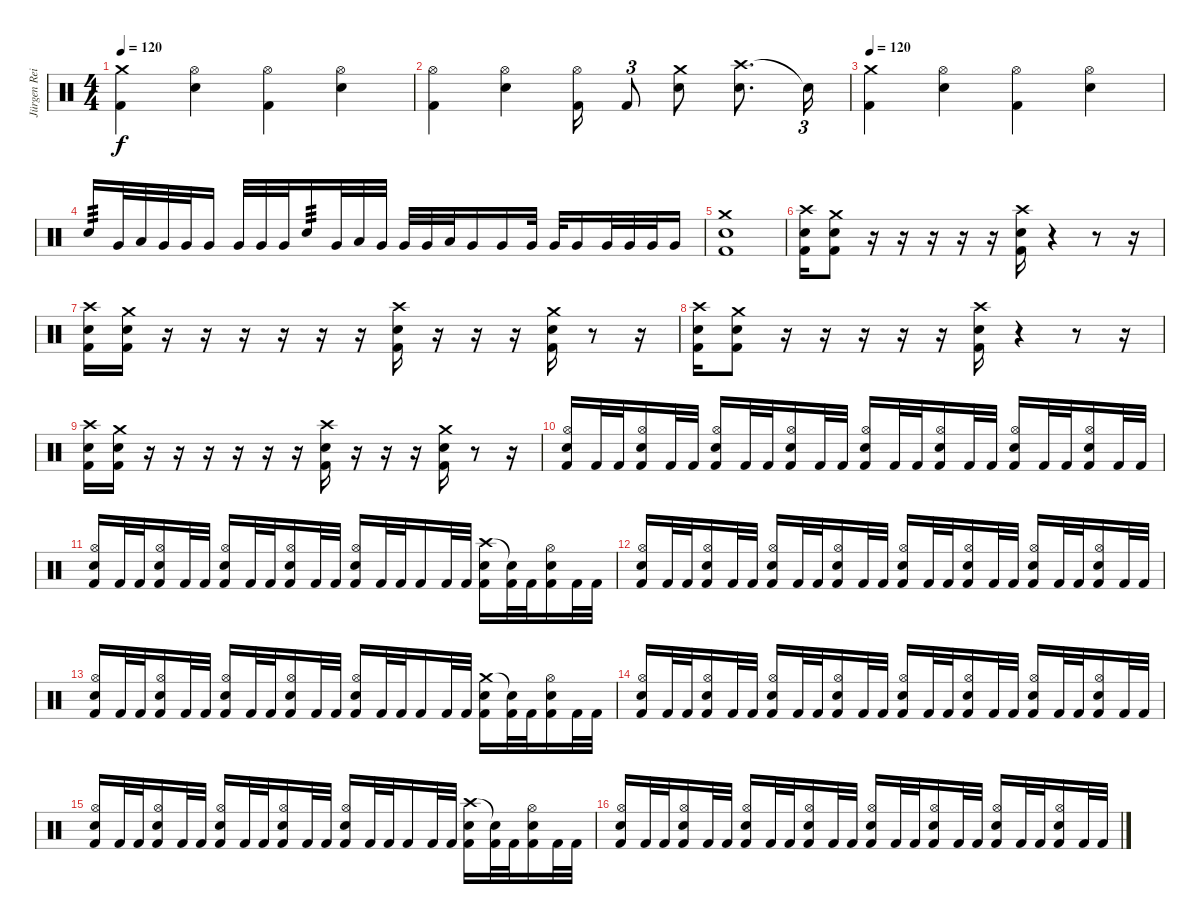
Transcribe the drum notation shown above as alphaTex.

\track ("Jürgen Reil" "Jürgen Rei") {instrument percussion}
\staff {score}
\articulation defaults
\ts (4 4)
\tempo 120
\clef neutral
\ks c
("Crash medium (hit)" "Kick (hit) 2").4{dy f} ("Hi-Hat (open)" "Electric Snare (hit)").4 ("Hi-Hat (open)" "Kick (hit) 2").4 ("Hi-Hat (open)" "Electric Snare (hit)").4 |
("Hi-Hat (open)" "Kick (hit) 2").4 ("Hi-Hat (open)" "Electric Snare (hit)").4 ("Hi-Hat (open)" "Kick (hit) 2").16 "Kick (hit) 2".8{tu (3 2)} ("Crash medium (hit)" "Electric Snare (hit)").8 ("Crash high (hit)" "Electric Snare (hit)").8{d} "Snare (hit)"{t}.16{tu (3 2)} |
\tempo 120
("Crash medium (hit)" "Kick (hit) 2").4 ("Hi-Hat (open)" "Electric Snare (hit)").4 ("Hi-Hat (open)" "Kick (hit) 2").4 ("Hi-Hat (open)" "Electric Snare (hit)").4 |
"Electric Snare (hit)".16{tp 3} "Very Low Tom (hit)".32 "Low Tom (hit)".32 "Very Low Tom (hit)".32 "Very Low Tom (hit)".32 "Very Low Tom (hit)".16 "Very Low Tom (hit)".32 "Very Low Tom (hit)".32 "Very Low Tom (hit)".32 "Electric Snare (hit)".16{tp 3} "Very Low Tom (hit)".32 "Low Tom (hit)".32 "Very Low Tom (hit)".32 "Very Low Tom (hit)".32 "Very Low Tom (hit)".32 "Low Tom (hit)".32 "Very Low Tom (hit)".16 "Very Low Tom (hit)".16 "Very Low Tom (hit)".32 "Very Low Tom (hit)".32 "Very Low Tom (hit)".16 "Very Low Tom (hit)".32 "Very Low Tom (hit)".32 "Very Low Tom (hit)".32 "Very Low Tom (hit)".16 |
("Crash medium (hit)" "Electric Snare (hit)" "Kick (hit) 2").1 |
("Kick (hit) 2" "Crash high (hit)" "Electric Snare (hit)").16 ("Kick (hit) 2" "Crash medium (hit)" "Electric Snare (hit)").8 r.16 r.16 r.16 r.16 r.16 ("Kick (hit) 2" "Crash high (hit)" "Electric Snare (hit)").16 r.4 r.8 r.16 |
("Kick (hit) 2" "Crash high (hit)" "Electric Snare (hit)").16 ("Kick (hit) 2" "Crash medium (hit)" "Electric Snare (hit)").16 r.16 r.16 r.16 r.16 r.16 r.16 ("Kick (hit) 2" "Crash high (hit)" "Electric Snare (hit)").16 r.16 r.16 r.16 ("Crash medium (hit)" "Kick (hit) 2" "Electric Snare (hit)").16 r.8 r.16 |
("Kick (hit) 2" "Crash high (hit)" "Electric Snare (hit)").16 ("Kick (hit) 2" "Crash medium (hit)" "Electric Snare (hit)").8 r.16 r.16 r.16 r.16 r.16 ("Kick (hit) 2" "Crash high (hit)" "Electric Snare (hit)").16 r.4 r.8 r.16 |
("Kick (hit) 2" "Crash high (hit)" "Electric Snare (hit)").16 ("Kick (hit) 2" "Crash medium (hit)" "Electric Snare (hit)").16 r.16 r.16 r.16 r.16 r.16 r.16 ("Kick (hit) 2" "Crash high (hit)" "Electric Snare (hit)").16 r.16 r.16 r.16 ("Crash medium (hit)" "Kick (hit) 2" "Electric Snare (hit)").16 r.8 r.16 |
("Hi-Hat (open)" "Electric Snare (hit)" "Kick (hit) 2").16 "Kick (hit) 2".32 "Kick (hit) 2".32 ("Hi-Hat (open)" "Electric Snare (hit)" "Kick (hit) 2").16 "Kick (hit) 2".32 "Kick (hit) 2".32 ("Hi-Hat (open)" "Electric Snare (hit)" "Kick (hit) 2").16 "Kick (hit) 2".32 "Kick (hit) 2".32 ("Hi-Hat (open)" "Electric Snare (hit)" "Kick (hit) 2").16 "Kick (hit) 2".32 "Kick (hit) 2".32 ("Hi-Hat (open)" "Electric Snare (hit)" "Kick (hit) 2").16 "Kick (hit) 2".32 "Kick (hit) 2".32 ("Hi-Hat (open)" "Electric Snare (hit)" "Kick (hit) 2").16 "Kick (hit) 2".32 "Kick (hit) 2".32 ("Hi-Hat (open)" "Electric Snare (hit)" "Kick (hit) 2").16 "Kick (hit) 2".32 "Kick (hit) 2".32 ("Hi-Hat (open)" "Electric Snare (hit)" "Kick (hit) 2").16 "Kick (hit) 2".32 "Kick (hit) 2".32 |
("Hi-Hat (open)" "Electric Snare (hit)" "Kick (hit) 2").16 "Kick (hit) 2".32 "Kick (hit) 2".32 ("Hi-Hat (open)" "Electric Snare (hit)" "Kick (hit) 2").16 "Kick (hit) 2".32 "Kick (hit) 2".32 ("Hi-Hat (open)" "Electric Snare (hit)" "Kick (hit) 2").16 "Kick (hit) 2".32 "Kick (hit) 2".32 ("Hi-Hat (open)" "Electric Snare (hit)" "Kick (hit) 2").16 "Kick (hit) 2".32 "Kick (hit) 2".32 ("Hi-Hat (open)" "Electric Snare (hit)" "Kick (hit) 2").16 "Kick (hit) 2".32 "Kick (hit) 2".32 "Kick (hit) 2".16 "Kick (hit) 2".32 "Kick (hit) 2".32 ("Crash high (hit)" "Electric Snare (hit)" "Kick (hit) 2").16 ("Snare (hit)"{t} "Kick (hit) 2").32 "Kick (hit) 2".32 ("Hi-Hat (open)" "Electric Snare (hit)" "Kick (hit) 2").16 "Kick (hit) 2".32 "Kick (hit) 2".32 |
("Hi-Hat (open)" "Electric Snare (hit)" "Kick (hit) 2").16 "Kick (hit) 2".32 "Kick (hit) 2".32 ("Hi-Hat (open)" "Electric Snare (hit)" "Kick (hit) 2").16 "Kick (hit) 2".32 "Kick (hit) 2".32 ("Hi-Hat (open)" "Electric Snare (hit)" "Kick (hit) 2").16 "Kick (hit) 2".32 "Kick (hit) 2".32 ("Hi-Hat (open)" "Electric Snare (hit)" "Kick (hit) 2").16 "Kick (hit) 2".32 "Kick (hit) 2".32 ("Hi-Hat (open)" "Electric Snare (hit)" "Kick (hit) 2").16 "Kick (hit) 2".32 "Kick (hit) 2".32 ("Hi-Hat (open)" "Electric Snare (hit)" "Kick (hit) 2").16 "Kick (hit) 2".32 "Kick (hit) 2".32 ("Hi-Hat (open)" "Electric Snare (hit)" "Kick (hit) 2").16 "Kick (hit) 2".32 "Kick (hit) 2".32 ("Hi-Hat (open)" "Electric Snare (hit)" "Kick (hit) 2").16 "Kick (hit) 2".32 "Kick (hit) 2".32 |
("Hi-Hat (open)" "Electric Snare (hit)" "Kick (hit) 2").16 "Kick (hit) 2".32 "Kick (hit) 2".32 ("Hi-Hat (open)" "Electric Snare (hit)" "Kick (hit) 2").16 "Kick (hit) 2".32 "Kick (hit) 2".32 ("Hi-Hat (open)" "Electric Snare (hit)" "Kick (hit) 2").16 "Kick (hit) 2".32 "Kick (hit) 2".32 ("Hi-Hat (open)" "Electric Snare (hit)" "Kick (hit) 2").16 "Kick (hit) 2".32 "Kick (hit) 2".32 ("Hi-Hat (open)" "Electric Snare (hit)" "Kick (hit) 2").16 "Kick (hit) 2".32 "Kick (hit) 2".32 "Kick (hit) 2".16 "Kick (hit) 2".32 "Kick (hit) 2".32 ("Crash medium (hit)" "Electric Snare (hit)" "Kick (hit) 2").16 ("Snare (hit)"{t} "Kick (hit) 2").32 "Kick (hit) 2".32 ("Hi-Hat (open)" "Electric Snare (hit)" "Kick (hit) 2").16 "Kick (hit) 2".32 "Kick (hit) 2".32 |
("Hi-Hat (open)" "Electric Snare (hit)" "Kick (hit) 2").16 "Kick (hit) 2".32 "Kick (hit) 2".32 ("Hi-Hat (open)" "Electric Snare (hit)" "Kick (hit) 2").16 "Kick (hit) 2".32 "Kick (hit) 2".32 ("Hi-Hat (open)" "Electric Snare (hit)" "Kick (hit) 2").16 "Kick (hit) 2".32 "Kick (hit) 2".32 ("Hi-Hat (open)" "Electric Snare (hit)" "Kick (hit) 2").16 "Kick (hit) 2".32 "Kick (hit) 2".32 ("Hi-Hat (open)" "Electric Snare (hit)" "Kick (hit) 2").16 "Kick (hit) 2".32 "Kick (hit) 2".32 ("Hi-Hat (open)" "Electric Snare (hit)" "Kick (hit) 2").16 "Kick (hit) 2".32 "Kick (hit) 2".32 ("Hi-Hat (open)" "Electric Snare (hit)" "Kick (hit) 2").16 "Kick (hit) 2".32 "Kick (hit) 2".32 ("Hi-Hat (open)" "Electric Snare (hit)" "Kick (hit) 2").16 "Kick (hit) 2".32 "Kick (hit) 2".32 |
("Hi-Hat (open)" "Electric Snare (hit)" "Kick (hit) 2").16 "Kick (hit) 2".32 "Kick (hit) 2".32 ("Hi-Hat (open)" "Electric Snare (hit)" "Kick (hit) 2").16 "Kick (hit) 2".32 "Kick (hit) 2".32 ("Hi-Hat (open)" "Electric Snare (hit)" "Kick (hit) 2").16 "Kick (hit) 2".32 "Kick (hit) 2".32 ("Hi-Hat (open)" "Electric Snare (hit)" "Kick (hit) 2").16 "Kick (hit) 2".32 "Kick (hit) 2".32 ("Hi-Hat (open)" "Electric Snare (hit)" "Kick (hit) 2").16 "Kick (hit) 2".32 "Kick (hit) 2".32 "Kick (hit) 2".16 "Kick (hit) 2".32 "Kick (hit) 2".32 ("Crash high (hit)" "Electric Snare (hit)" "Kick (hit) 2").16 ("Snare (hit)"{t} "Kick (hit) 2").32 "Kick (hit) 2".32 ("Hi-Hat (open)" "Electric Snare (hit)" "Kick (hit) 2").16 "Kick (hit) 2".32 "Kick (hit) 2".32 |
("Hi-Hat (open)" "Electric Snare (hit)" "Kick (hit) 2").16 "Kick (hit) 2".32 "Kick (hit) 2".32 ("Hi-Hat (open)" "Electric Snare (hit)" "Kick (hit) 2").16 "Kick (hit) 2".32 "Kick (hit) 2".32 ("Hi-Hat (open)" "Electric Snare (hit)" "Kick (hit) 2").16 "Kick (hit) 2".32 "Kick (hit) 2".32 ("Hi-Hat (open)" "Electric Snare (hit)" "Kick (hit) 2").16 "Kick (hit) 2".32 "Kick (hit) 2".32 ("Hi-Hat (open)" "Electric Snare (hit)" "Kick (hit) 2").16 "Kick (hit) 2".32 "Kick (hit) 2".32 ("Hi-Hat (open)" "Electric Snare (hit)" "Kick (hit) 2").16 "Kick (hit) 2".32 "Kick (hit) 2".32 ("Hi-Hat (open)" "Electric Snare (hit)" "Kick (hit) 2").16 "Kick (hit) 2".32 "Kick (hit) 2".32 ("Hi-Hat (open)" "Electric Snare (hit)" "Kick (hit) 2").16 "Kick (hit) 2".32 "Kick (hit) 2".32
